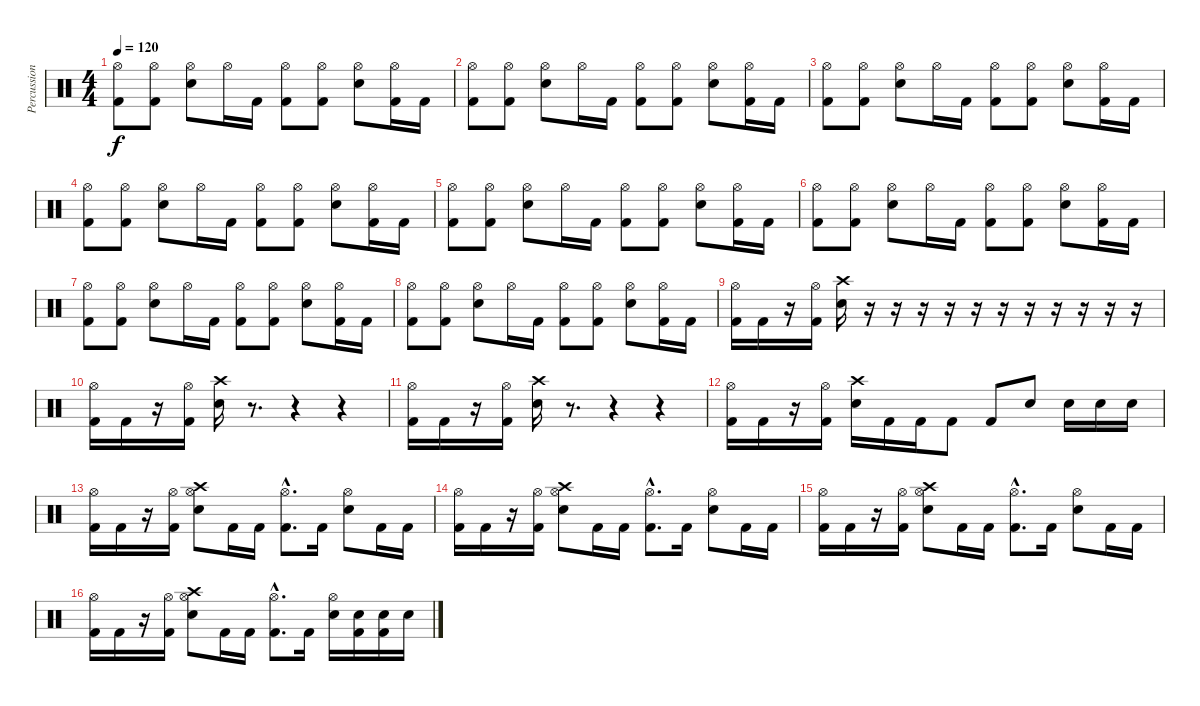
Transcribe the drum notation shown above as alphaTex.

\track ("Percussion" "Percussion") {instrument percussion}
\staff {score}
\articulation defaults
\ts (4 4)
\tempo 120
\clef neutral
\ks c
("Hi-Hat (open)" "Kick (hit) 2").8{dy f} ("Hi-Hat (open)" "Kick (hit) 2").8 ("Hi-Hat (open)" "Electric Snare (hit)").8 "Hi-Hat (open)".16 "Kick (hit) 2".16 ("Hi-Hat (open)" "Kick (hit) 2").8 ("Hi-Hat (open)" "Kick (hit) 2").8 ("Hi-Hat (open)" "Electric Snare (hit)").8 ("Hi-Hat (open)" "Kick (hit) 2").16 "Kick (hit) 2".16 |
("Hi-Hat (open)" "Kick (hit) 2").8 ("Hi-Hat (open)" "Kick (hit) 2").8 ("Hi-Hat (open)" "Electric Snare (hit)").8 "Hi-Hat (open)".16 "Kick (hit) 2".16 ("Hi-Hat (open)" "Kick (hit) 2").8 ("Hi-Hat (open)" "Kick (hit) 2").8 ("Hi-Hat (open)" "Electric Snare (hit)").8 ("Hi-Hat (open)" "Kick (hit) 2").16 "Kick (hit) 2".16 |
("Hi-Hat (open)" "Kick (hit) 2").8 ("Hi-Hat (open)" "Kick (hit) 2").8 ("Hi-Hat (open)" "Electric Snare (hit)").8 "Hi-Hat (open)".16 "Kick (hit) 2".16 ("Hi-Hat (open)" "Kick (hit) 2").8 ("Hi-Hat (open)" "Kick (hit) 2").8 ("Hi-Hat (open)" "Electric Snare (hit)").8 ("Hi-Hat (open)" "Kick (hit) 2").16 "Kick (hit) 2".16 |
("Hi-Hat (open)" "Kick (hit) 2").8 ("Hi-Hat (open)" "Kick (hit) 2").8 ("Hi-Hat (open)" "Electric Snare (hit)").8 "Hi-Hat (open)".16 "Kick (hit) 2".16 ("Hi-Hat (open)" "Kick (hit) 2").8 ("Hi-Hat (open)" "Kick (hit) 2").8 ("Hi-Hat (open)" "Electric Snare (hit)").8 ("Hi-Hat (open)" "Kick (hit) 2").16 "Kick (hit) 2".16 |
("Hi-Hat (open)" "Kick (hit) 2").8 ("Hi-Hat (open)" "Kick (hit) 2").8 ("Hi-Hat (open)" "Electric Snare (hit)").8 "Hi-Hat (open)".16 "Kick (hit) 2".16 ("Hi-Hat (open)" "Kick (hit) 2").8 ("Hi-Hat (open)" "Kick (hit) 2").8 ("Hi-Hat (open)" "Electric Snare (hit)").8 ("Hi-Hat (open)" "Kick (hit) 2").16 "Kick (hit) 2".16 |
("Hi-Hat (open)" "Kick (hit) 2").8 ("Hi-Hat (open)" "Kick (hit) 2").8 ("Hi-Hat (open)" "Electric Snare (hit)").8 "Hi-Hat (open)".16 "Kick (hit) 2".16 ("Hi-Hat (open)" "Kick (hit) 2").8 ("Hi-Hat (open)" "Kick (hit) 2").8 ("Hi-Hat (open)" "Electric Snare (hit)").8 ("Hi-Hat (open)" "Kick (hit) 2").16 "Kick (hit) 2".16 |
("Hi-Hat (open)" "Kick (hit) 2").8 ("Hi-Hat (open)" "Kick (hit) 2").8 ("Hi-Hat (open)" "Electric Snare (hit)").8 "Hi-Hat (open)".16 "Kick (hit) 2".16 ("Hi-Hat (open)" "Kick (hit) 2").8 ("Hi-Hat (open)" "Kick (hit) 2").8 ("Hi-Hat (open)" "Electric Snare (hit)").8 ("Hi-Hat (open)" "Kick (hit) 2").16 "Kick (hit) 2".16 |
("Hi-Hat (open)" "Kick (hit) 2").8 ("Hi-Hat (open)" "Kick (hit) 2").8 ("Hi-Hat (open)" "Electric Snare (hit)").8 "Hi-Hat (open)".16 "Kick (hit) 2".16 ("Hi-Hat (open)" "Kick (hit) 2").8 ("Hi-Hat (open)" "Kick (hit) 2").8 ("Hi-Hat (open)" "Electric Snare (hit)").8 ("Hi-Hat (open)" "Kick (hit) 2").16 "Kick (hit) 2".16 |
("Hi-Hat (open)" "Kick (hit) 2").16 "Kick (hit) 2".16 r.16 ("Hi-Hat (open)" "Kick (hit) 2").16 ("Crash high (hit)" "Electric Snare (hit)").16 r.16 r.16 r.16 r.16 r.16 r.16 r.16 r.16 r.16 r.16 r.16 |
("Hi-Hat (open)" "Kick (hit) 2").16 "Kick (hit) 2".16 r.16 ("Hi-Hat (open)" "Kick (hit) 2").16 ("Crash high (hit)" "Electric Snare (hit)").16 r.8{d} r.4 r.4 |
("Hi-Hat (open)" "Kick (hit) 2").16 "Kick (hit) 2".16 r.16 ("Hi-Hat (open)" "Kick (hit) 2").16 ("Crash high (hit)" "Electric Snare (hit)").16 r.8{d} r.4 r.4 |
("Hi-Hat (open)" "Kick (hit) 2").16 "Kick (hit) 2".16 r.16 ("Hi-Hat (open)" "Kick (hit) 2").16 ("Crash high (hit)" "Electric Snare (hit)").16 "Kick (hit) 2".16 "Kick (hit) 2".16 "Kick (hit) 2".8 "Kick (hit) 2".8 "Electric Snare (hit)".8 "Electric Snare (hit)".16 "Electric Snare (hit)".16 "Electric Snare (hit)".16 |
("Hi-Hat (open)" "Kick (hit) 2").16 "Kick (hit) 2".16 r.16 ("Hi-Hat (open)" "Kick (hit) 2").16 ("Crash high (hit)" "Hi-Hat (open)" "Electric Snare (hit)").8 "Kick (hit) 2".16 "Kick (hit) 2".16 ("Hi-Hat (open)"{hac} "Kick (hit) 2"{hac}).8{d} "Kick (hit) 2".16 ("Hi-Hat (open)" "Electric Snare (hit)").8 "Kick (hit) 2".16 "Kick (hit) 2".16 |
("Hi-Hat (open)" "Kick (hit) 2").16 "Kick (hit) 2".16 r.16 ("Hi-Hat (open)" "Kick (hit) 2").16 ("Crash high (hit)" "Hi-Hat (open)" "Electric Snare (hit)").8 "Kick (hit) 2".16 "Kick (hit) 2".16 ("Hi-Hat (open)"{hac} "Kick (hit) 2"{hac}).8{d} "Kick (hit) 2".16 ("Hi-Hat (open)" "Electric Snare (hit)").8 "Kick (hit) 2".16 "Kick (hit) 2".16 |
("Hi-Hat (open)" "Kick (hit) 2").16 "Kick (hit) 2".16 r.16 ("Hi-Hat (open)" "Kick (hit) 2").16 ("Crash high (hit)" "Hi-Hat (open)" "Electric Snare (hit)").8 "Kick (hit) 2".16 "Kick (hit) 2".16 ("Hi-Hat (open)"{hac} "Kick (hit) 2"{hac}).8{d} "Kick (hit) 2".16 ("Hi-Hat (open)" "Electric Snare (hit)").8 "Kick (hit) 2".16 "Kick (hit) 2".16 |
("Hi-Hat (open)" "Kick (hit) 2").16 "Kick (hit) 2".16 r.16 ("Hi-Hat (open)" "Kick (hit) 2").16 ("Crash high (hit)" "Hi-Hat (open)" "Electric Snare (hit)").8 "Kick (hit) 2".16 "Kick (hit) 2".16 ("Hi-Hat (open)"{hac} "Kick (hit) 2"{hac}).8{d} "Kick (hit) 2".16 ("Hi-Hat (open)" "Electric Snare (hit)").16 ("Electric Snare (hit)" "Kick (hit) 2").16 ("Electric Snare (hit)" "Kick (hit) 2").16 "Electric Snare (hit)".16
